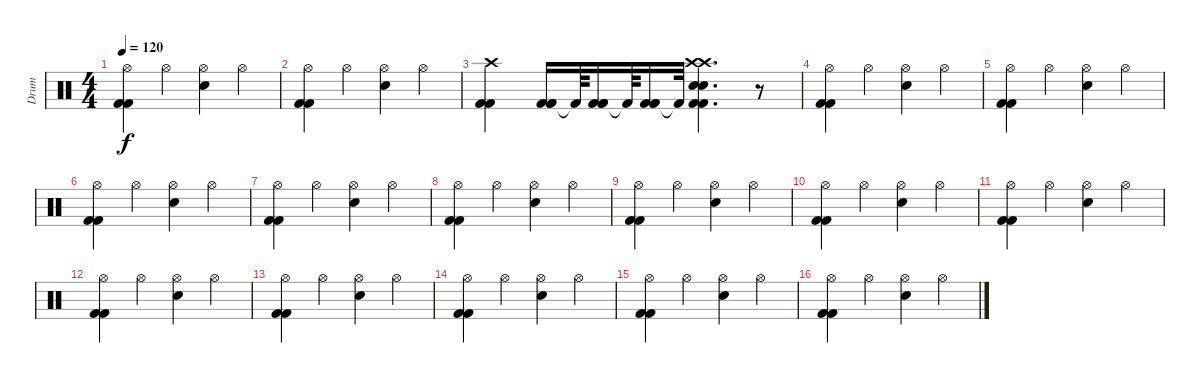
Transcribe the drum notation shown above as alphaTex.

\track ("Drum" "Drum") {instrument percussion}
\staff {score}
\articulation defaults
\ts (4 4)
\tempo 120
\clef neutral
\ks c
("Kick (hit) 2" "Kick (hit) 2" "Hi-Hat (open)").4{dy f} "Hi-Hat (open)".4 ("Snare (hit) 2" "Hi-Hat (open)").4 "Hi-Hat (open)".4 |
("Kick (hit) 2" "Kick (hit) 2" "Hi-Hat (open)").4 "Hi-Hat (open)".4 ("Snare (hit) 2" "Hi-Hat (open)").4 "Hi-Hat (open)".4 |
("Kick (hit) 2" "Kick (hit) 2" "Crash high (hit)").4 ("Kick (hit) 2" "Kick (hit) 2" "Kick (hit) 2").16 "Kick (hit) 2"{t}.64 ("Kick (hit) 2" "Kick (hit) 2" "Kick (hit) 2").16 "Kick (hit) 2"{t}.64 ("Kick (hit) 2" "Kick (hit) 2" "Kick (hit) 2").16 "Kick (hit) 2"{t}.32 ("Snare (hit) 2" "Snare (hit) 2" "Kick (hit) 2" "Kick (hit) 2" "Crash high (hit)" "Crash high (hit)").4{d} r.8 |
("Kick (hit) 2" "Kick (hit) 2" "Hi-Hat (open)").4 "Hi-Hat (open)".4 ("Snare (hit) 2" "Hi-Hat (open)").4 "Hi-Hat (open)".4 |
("Kick (hit) 2" "Kick (hit) 2" "Hi-Hat (open)").4 "Hi-Hat (open)".4 ("Snare (hit) 2" "Hi-Hat (open)").4 "Hi-Hat (open)".4 |
("Kick (hit) 2" "Kick (hit) 2" "Hi-Hat (open)").4 "Hi-Hat (open)".4 ("Snare (hit) 2" "Hi-Hat (open)").4 "Hi-Hat (open)".4 |
("Kick (hit) 2" "Kick (hit) 2" "Hi-Hat (open)").4 "Hi-Hat (open)".4 ("Snare (hit) 2" "Hi-Hat (open)").4 "Hi-Hat (open)".4 |
("Kick (hit) 2" "Kick (hit) 2" "Hi-Hat (open)").4 "Hi-Hat (open)".4 ("Snare (hit) 2" "Hi-Hat (open)").4 "Hi-Hat (open)".4 |
("Kick (hit) 2" "Kick (hit) 2" "Hi-Hat (open)").4 "Hi-Hat (open)".4 ("Snare (hit) 2" "Hi-Hat (open)").4 "Hi-Hat (open)".4 |
("Kick (hit) 2" "Kick (hit) 2" "Hi-Hat (open)").4 "Hi-Hat (open)".4 ("Snare (hit) 2" "Hi-Hat (open)").4 "Hi-Hat (open)".4 |
("Kick (hit) 2" "Kick (hit) 2" "Hi-Hat (open)").4 "Hi-Hat (open)".4 ("Snare (hit) 2" "Hi-Hat (open)").4 "Hi-Hat (open)".4 |
("Kick (hit) 2" "Kick (hit) 2" "Hi-Hat (open)").4 "Hi-Hat (open)".4 ("Snare (hit) 2" "Hi-Hat (open)").4 "Hi-Hat (open)".4 |
("Kick (hit) 2" "Kick (hit) 2" "Hi-Hat (open)").4 "Hi-Hat (open)".4 ("Snare (hit) 2" "Hi-Hat (open)").4 "Hi-Hat (open)".4 |
("Kick (hit) 2" "Kick (hit) 2" "Hi-Hat (open)").4 "Hi-Hat (open)".4 ("Snare (hit) 2" "Hi-Hat (open)").4 "Hi-Hat (open)".4 |
("Kick (hit) 2" "Kick (hit) 2" "Hi-Hat (open)").4 "Hi-Hat (open)".4 ("Snare (hit) 2" "Hi-Hat (open)").4 "Hi-Hat (open)".4 |
("Kick (hit) 2" "Kick (hit) 2" "Hi-Hat (open)").4 "Hi-Hat (open)".4 ("Snare (hit) 2" "Hi-Hat (open)").4 "Hi-Hat (open)".4
